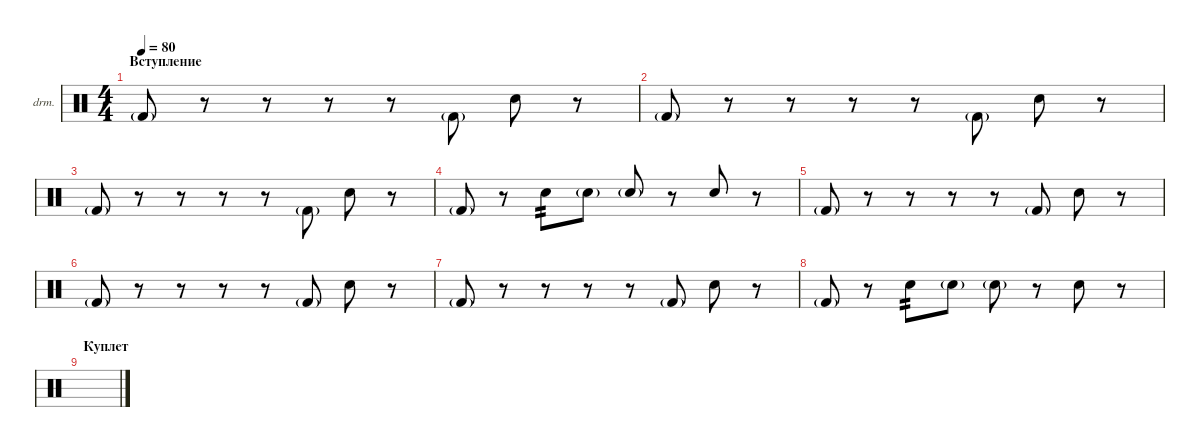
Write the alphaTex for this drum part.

\defaultSystemsLayout 4
\hideDynamics
\bracketExtendMode nobrackets
\firstSystemTrackNameOrientation horizontal
\otherSystemsTrackNameOrientation horizontal
\track ("Drumkit" "drm.") {instrument percussion}
\staff {score}
\articulation defaults
\ts (4 4)
\section ("" "Вступление")
\tempo 80
\clef neutral
\ks c "Kick (hit) 2"{g}.8{dy mf beam Up}
r.8{beam Up} r.8{beam Up} r.8{beam Down} r.8{beam Down} "Kick (hit) 2"{g}.8{beam Up} "Snare (hit) 2".8{beam Down} r.8{beam Down} |
"Kick (hit) 2"{g}.8{beam Up} r.8{beam Up} r.8{beam Up} r.8{beam Down} r.8{beam Down} "Kick (hit) 2"{g}.8{beam Up} "Snare (hit) 2".8{beam Down} r.8{beam Down} |
"Kick (hit) 2"{g}.8{beam Up} r.8{beam Up} r.8{beam Up} r.8{beam Down} r.8{beam Down} "Kick (hit) 2"{g}.8{beam Up} "Snare (hit) 2".8{beam Down} r.8{beam Down} |
"Kick (hit) 2"{g}.8{beam Up} r.8{beam Up} "Snare (hit) 2".8{tp 2 beam Down} "Snare (hit) 2"{g}.8{dy mp beam Down} "Snare (hit) 2"{g}.8{beam Up} r.8{beam Up} "Snare (hit) 2".8{dy mf beam Up} r.8{beam Down} |
"Kick (hit) 2"{g}.8{beam Up} r.8{beam Up} r.8{beam Up} r.8{beam Up} r.8{beam Up} "Kick (hit) 2"{g}.8{beam Up} "Snare (hit) 2".8{beam Down} r.8{beam Down} |
"Kick (hit) 2"{g}.8{beam Up} r.8{beam Up} r.8{beam Up} r.8{beam Up} r.8{beam Up} "Kick (hit) 2"{g}.8{beam Up} "Snare (hit) 2".8{beam Down} r.8{beam Down} |
"Kick (hit) 2"{g}.8{beam Up} r.8{beam Up} r.8{beam Up} r.8{beam Up} r.8{beam Up} "Kick (hit) 2"{g}.8{beam Up} "Snare (hit) 2".8{beam Down} r.8{beam Down} |
"Kick (hit) 2"{g}.8{beam Up} r.8{beam Up} "Snare (hit) 2".8{tp 2 beam Down} "Snare (hit) 2"{g}.8{dy mp beam Down} "Snare (hit) 2"{g}.8{beam Down} r.8{beam Down} "Snare (hit) 2".8{dy mf beam Down} r.8{beam Down} |
\section ("" "Куплет ")
